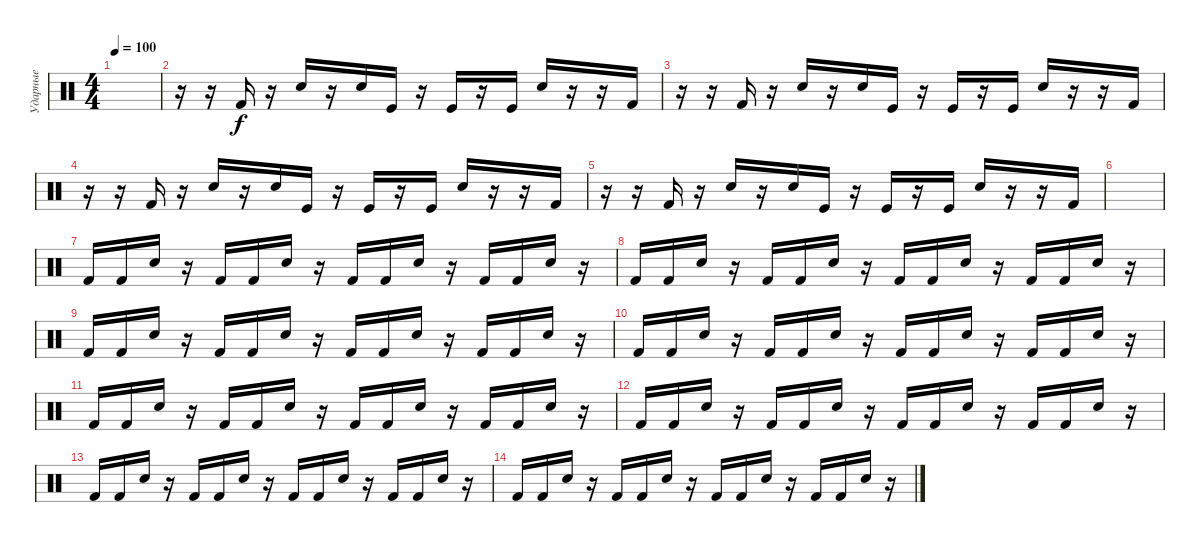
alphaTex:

\track ("Ударные" "Ударные") {instrument percussion}
\staff {score}
\articulation defaults
\ts (4 4)
\tempo 100
\clef neutral
\ks c
|
r.16 r.16 "Kick (hit) 2".16 r.16 "Electric Snare (hit)".16 r.16 "Electric Snare (hit)".16 "Kick (hit)".16 r.16 "Kick (hit)".16 r.16 "Kick (hit)".16 "Electric Snare (hit)".16 r.16 r.16 "Kick (hit) 2".16 |
r.16 r.16 "Kick (hit) 2".16 r.16 "Electric Snare (hit)".16 r.16 "Electric Snare (hit)".16 "Kick (hit)".16 r.16 "Kick (hit)".16 r.16 "Kick (hit)".16 "Electric Snare (hit)".16 r.16 r.16 "Kick (hit) 2".16 |
r.16 r.16 "Kick (hit) 2".16 r.16 "Electric Snare (hit)".16 r.16 "Electric Snare (hit)".16 "Kick (hit)".16 r.16 "Kick (hit)".16 r.16 "Kick (hit)".16 "Electric Snare (hit)".16 r.16 r.16 "Kick (hit) 2".16 |
r.16 r.16 "Kick (hit) 2".16 r.16 "Electric Snare (hit)".16 r.16 "Electric Snare (hit)".16 "Kick (hit)".16 r.16 "Kick (hit)".16 r.16 "Kick (hit)".16 "Electric Snare (hit)".16 r.16 r.16 "Kick (hit) 2".16 |
|
"Kick (hit) 2".16 "Kick (hit) 2".16 "Electric Snare (hit)".16 r.16 "Kick (hit) 2".16 "Kick (hit) 2".16 "Electric Snare (hit)".16 r.16 "Kick (hit) 2".16 "Kick (hit) 2".16 "Electric Snare (hit)".16 r.16 "Kick (hit) 2".16 "Kick (hit) 2".16 "Electric Snare (hit)".16 r.16 |
"Kick (hit) 2".16 "Kick (hit) 2".16 "Electric Snare (hit)".16 r.16 "Kick (hit) 2".16 "Kick (hit) 2".16 "Electric Snare (hit)".16 r.16 "Kick (hit) 2".16 "Kick (hit) 2".16 "Electric Snare (hit)".16 r.16 "Kick (hit) 2".16 "Kick (hit) 2".16 "Electric Snare (hit)".16 r.16 |
"Kick (hit) 2".16 "Kick (hit) 2".16 "Electric Snare (hit)".16 r.16 "Kick (hit) 2".16 "Kick (hit) 2".16 "Electric Snare (hit)".16 r.16 "Kick (hit) 2".16 "Kick (hit) 2".16 "Electric Snare (hit)".16 r.16 "Kick (hit) 2".16 "Kick (hit) 2".16 "Electric Snare (hit)".16 r.16 |
"Kick (hit) 2".16 "Kick (hit) 2".16 "Electric Snare (hit)".16 r.16 "Kick (hit) 2".16 "Kick (hit) 2".16 "Electric Snare (hit)".16 r.16 "Kick (hit) 2".16 "Kick (hit) 2".16 "Electric Snare (hit)".16 r.16 "Kick (hit) 2".16 "Kick (hit) 2".16 "Electric Snare (hit)".16 r.16 |
"Kick (hit) 2".16 "Kick (hit) 2".16 "Electric Snare (hit)".16 r.16 "Kick (hit) 2".16 "Kick (hit) 2".16 "Electric Snare (hit)".16 r.16 "Kick (hit) 2".16 "Kick (hit) 2".16 "Electric Snare (hit)".16 r.16 "Kick (hit) 2".16 "Kick (hit) 2".16 "Electric Snare (hit)".16 r.16 |
"Kick (hit) 2".16 "Kick (hit) 2".16 "Electric Snare (hit)".16 r.16 "Kick (hit) 2".16 "Kick (hit) 2".16 "Electric Snare (hit)".16 r.16 "Kick (hit) 2".16 "Kick (hit) 2".16 "Electric Snare (hit)".16 r.16 "Kick (hit) 2".16 "Kick (hit) 2".16 "Electric Snare (hit)".16 r.16 |
"Kick (hit) 2".16 "Kick (hit) 2".16 "Electric Snare (hit)".16 r.16 "Kick (hit) 2".16 "Kick (hit) 2".16 "Electric Snare (hit)".16 r.16 "Kick (hit) 2".16 "Kick (hit) 2".16 "Electric Snare (hit)".16 r.16 "Kick (hit) 2".16 "Kick (hit) 2".16 "Electric Snare (hit)".16 r.16 |
"Kick (hit) 2".16 "Kick (hit) 2".16 "Electric Snare (hit)".16 r.16 "Kick (hit) 2".16 "Kick (hit) 2".16 "Electric Snare (hit)".16 r.16 "Kick (hit) 2".16 "Kick (hit) 2".16 "Electric Snare (hit)".16 r.16 "Kick (hit) 2".16 "Kick (hit) 2".16 "Electric Snare (hit)".16 r.16
